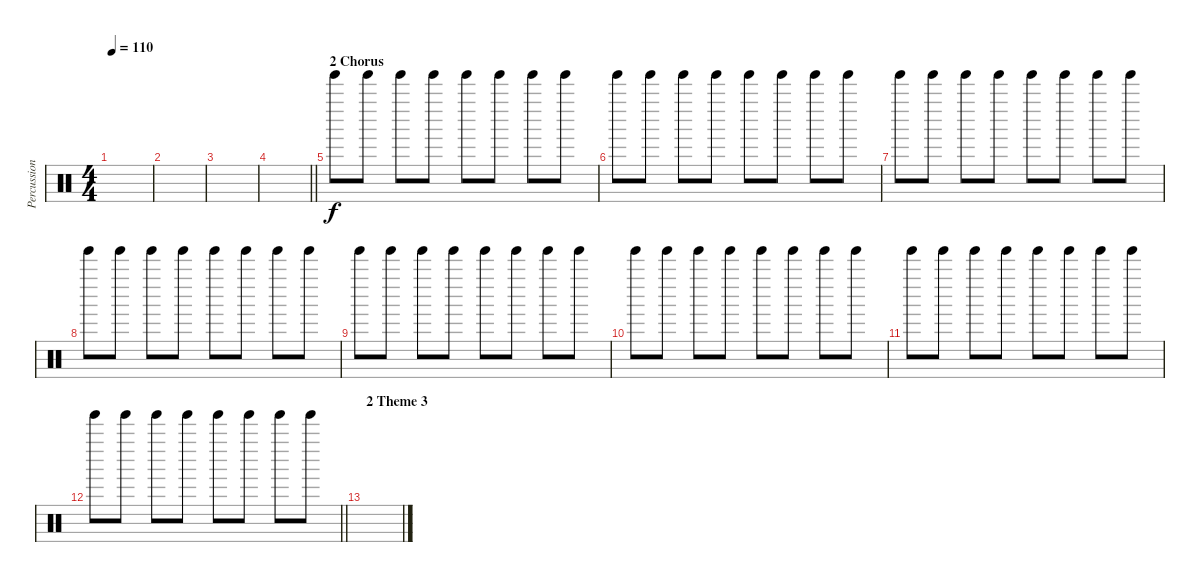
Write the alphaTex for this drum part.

\track ("Percussion" "Percussion") {instrument percussion}
\staff {score}
\articulation defaults
\ts (4 4)
\tempo 110
\clef neutral
\ks c
|
|
|
\barLineRight lightlight
|
\section ("" "2 Chorus")
"Tinkle Bell (hit)".8 "Tinkle Bell (hit)".8 "Tinkle Bell (hit)".8 "Tinkle Bell (hit)".8 "Tinkle Bell (hit)".8 "Tinkle Bell (hit)".8 "Tinkle Bell (hit)".8 "Tinkle Bell (hit)".8 |
"Tinkle Bell (hit)".8 "Tinkle Bell (hit)".8 "Tinkle Bell (hit)".8 "Tinkle Bell (hit)".8 "Tinkle Bell (hit)".8 "Tinkle Bell (hit)".8 "Tinkle Bell (hit)".8 "Tinkle Bell (hit)".8 |
"Tinkle Bell (hit)".8 "Tinkle Bell (hit)".8 "Tinkle Bell (hit)".8 "Tinkle Bell (hit)".8 "Tinkle Bell (hit)".8 "Tinkle Bell (hit)".8 "Tinkle Bell (hit)".8 "Tinkle Bell (hit)".8 |
"Tinkle Bell (hit)".8 "Tinkle Bell (hit)".8 "Tinkle Bell (hit)".8 "Tinkle Bell (hit)".8 "Tinkle Bell (hit)".8 "Tinkle Bell (hit)".8 "Tinkle Bell (hit)".8 "Tinkle Bell (hit)".8 |
"Tinkle Bell (hit)".8 "Tinkle Bell (hit)".8 "Tinkle Bell (hit)".8 "Tinkle Bell (hit)".8 "Tinkle Bell (hit)".8 "Tinkle Bell (hit)".8 "Tinkle Bell (hit)".8 "Tinkle Bell (hit)".8 |
"Tinkle Bell (hit)".8 "Tinkle Bell (hit)".8 "Tinkle Bell (hit)".8 "Tinkle Bell (hit)".8 "Tinkle Bell (hit)".8 "Tinkle Bell (hit)".8 "Tinkle Bell (hit)".8 "Tinkle Bell (hit)".8 |
"Tinkle Bell (hit)".8 "Tinkle Bell (hit)".8 "Tinkle Bell (hit)".8 "Tinkle Bell (hit)".8 "Tinkle Bell (hit)".8 "Tinkle Bell (hit)".8 "Tinkle Bell (hit)".8 "Tinkle Bell (hit)".8 |
\barLineRight lightlight "Tinkle Bell (hit)".8 "Tinkle Bell (hit)".8 "Tinkle Bell (hit)".8 "Tinkle Bell (hit)".8 "Tinkle Bell (hit)".8 "Tinkle Bell (hit)".8 "Tinkle Bell (hit)".8 "Tinkle Bell (hit)".8
|
\section ("" "2 Theme 3")
